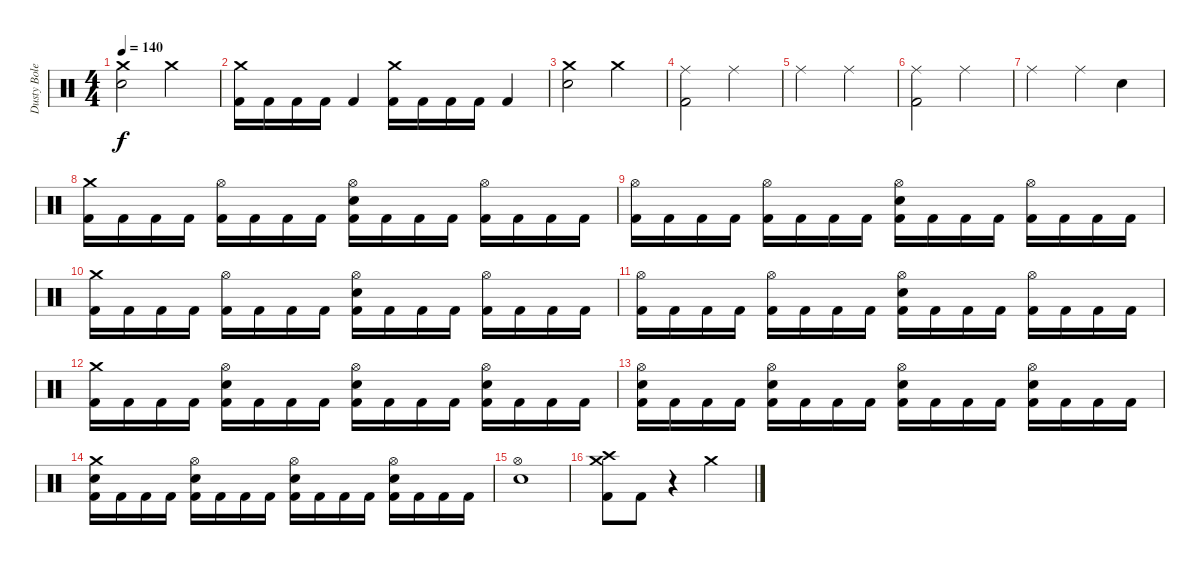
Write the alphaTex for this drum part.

\track ("Dusty Boles" "Dusty Bole") {instrument percussion}
\staff {score}
\articulation defaults
\ts (4 4)
\tempo 140
\clef neutral
\ks c
("Crash medium (hit)" "Electric Snare (hit)").2{dy f} "Crash medium (hit)".2 |
("Crash medium (hit)" "Kick (hit) 2").16 "Kick (hit) 2".16 "Kick (hit) 2".16 "Kick (hit) 2".16 "Kick (hit) 2".4 ("Crash medium (hit)" "Kick (hit) 2").16 "Kick (hit) 2".16 "Kick (hit) 2".16 "Kick (hit) 2".16 "Kick (hit) 2".4 |
("Crash medium (hit)" "Electric Snare (hit)").2 "Crash medium (hit)".2 |
("Ride (middle)" "Kick (hit) 2").2 "Ride (middle)".2 |
"Ride (middle)".2 "Ride (middle)".2 |
("Ride (middle)" "Kick (hit) 2").2 "Ride (middle)".2 |
"Ride (middle)".2 "Ride (middle)".4 "Electric Snare (hit)".4 |
("Crash medium (hit)" "Kick (hit) 2").16 "Kick (hit) 2".16 "Kick (hit) 2".16 "Kick (hit) 2".16 ("Hi-Hat (open)" "Kick (hit) 2").16 "Kick (hit) 2".16 "Kick (hit) 2".16 "Kick (hit) 2".16 ("Hi-Hat (open)" "Electric Snare (hit)" "Kick (hit) 2").16 "Kick (hit) 2".16 "Kick (hit) 2".16 "Kick (hit) 2".16 ("Hi-Hat (open)" "Kick (hit) 2").16 "Kick (hit) 2".16 "Kick (hit) 2".16 "Kick (hit) 2".16 |
("Hi-Hat (open)" "Kick (hit) 2").16 "Kick (hit) 2".16 "Kick (hit) 2".16 "Kick (hit) 2".16 ("Hi-Hat (open)" "Kick (hit) 2").16 "Kick (hit) 2".16 "Kick (hit) 2".16 "Kick (hit) 2".16 ("Hi-Hat (open)" "Electric Snare (hit)" "Kick (hit) 2").16 "Kick (hit) 2".16 "Kick (hit) 2".16 "Kick (hit) 2".16 ("Hi-Hat (open)" "Kick (hit) 2").16 "Kick (hit) 2".16 "Kick (hit) 2".16 "Kick (hit) 2".16 |
("Crash medium (hit)" "Kick (hit) 2").16 "Kick (hit) 2".16 "Kick (hit) 2".16 "Kick (hit) 2".16 ("Hi-Hat (open)" "Kick (hit) 2").16 "Kick (hit) 2".16 "Kick (hit) 2".16 "Kick (hit) 2".16 ("Hi-Hat (open)" "Electric Snare (hit)" "Kick (hit) 2").16 "Kick (hit) 2".16 "Kick (hit) 2".16 "Kick (hit) 2".16 ("Hi-Hat (open)" "Kick (hit) 2").16 "Kick (hit) 2".16 "Kick (hit) 2".16 "Kick (hit) 2".16 |
("Hi-Hat (open)" "Kick (hit) 2").16 "Kick (hit) 2".16 "Kick (hit) 2".16 "Kick (hit) 2".16 ("Hi-Hat (open)" "Kick (hit) 2").16 "Kick (hit) 2".16 "Kick (hit) 2".16 "Kick (hit) 2".16 ("Hi-Hat (open)" "Electric Snare (hit)" "Kick (hit) 2").16 "Kick (hit) 2".16 "Kick (hit) 2".16 "Kick (hit) 2".16 ("Hi-Hat (open)" "Kick (hit) 2").16 "Kick (hit) 2".16 "Kick (hit) 2".16 "Kick (hit) 2".16 |
("Crash medium (hit)" "Kick (hit) 2").16 "Kick (hit) 2".16 "Kick (hit) 2".16 "Kick (hit) 2".16 ("Hi-Hat (open)" "Electric Snare (hit)" "Kick (hit) 2").16 "Kick (hit) 2".16 "Kick (hit) 2".16 "Kick (hit) 2".16 ("Hi-Hat (open)" "Electric Snare (hit)" "Kick (hit) 2").16 "Kick (hit) 2".16 "Kick (hit) 2".16 "Kick (hit) 2".16 ("Hi-Hat (open)" "Electric Snare (hit)" "Kick (hit) 2").16 "Kick (hit) 2".16 "Kick (hit) 2".16 "Kick (hit) 2".16 |
("Hi-Hat (open)" "Electric Snare (hit)" "Kick (hit) 2").16 "Kick (hit) 2".16 "Kick (hit) 2".16 "Kick (hit) 2".16 ("Hi-Hat (open)" "Electric Snare (hit)" "Kick (hit) 2").16 "Kick (hit) 2".16 "Kick (hit) 2".16 "Kick (hit) 2".16 ("Hi-Hat (open)" "Electric Snare (hit)" "Kick (hit) 2").16 "Kick (hit) 2".16 "Kick (hit) 2".16 "Kick (hit) 2".16 ("Hi-Hat (open)" "Electric Snare (hit)" "Kick (hit) 2").16 "Kick (hit) 2".16 "Kick (hit) 2".16 "Kick (hit) 2".16 |
("Crash medium (hit)" "Electric Snare (hit)" "Kick (hit) 2").16 "Kick (hit) 2".16 "Kick (hit) 2".16 "Kick (hit) 2".16 ("Hi-Hat (open)" "Electric Snare (hit)" "Kick (hit) 2").16 "Kick (hit) 2".16 "Kick (hit) 2".16 "Kick (hit) 2".16 ("Hi-Hat (open)" "Electric Snare (hit)" "Kick (hit) 2").16 "Kick (hit) 2".16 "Kick (hit) 2".16 "Kick (hit) 2".16 ("Hi-Hat (open)" "Electric Snare (hit)" "Kick (hit) 2").16 "Kick (hit) 2".16 "Kick (hit) 2".16 "Kick (hit) 2".16 |
("Hi-Hat (open)" "Electric Snare (hit)").1 |
("Crash high (hit)" "Crash medium (hit)" "Kick (hit) 2").8 "Kick (hit) 2".8 r.4 "Crash medium (hit)".2
